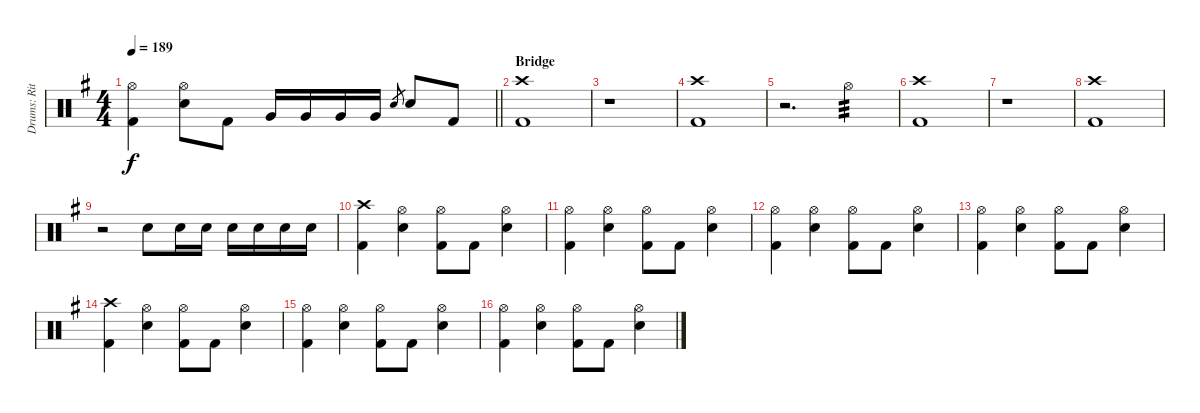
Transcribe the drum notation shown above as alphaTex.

\track ("Drums: Ritsu Tainaka" "Drums: Rit") {instrument percussion}
\staff {score}
\articulation defaults
\ts (4 4)
\tempo 189
\clef neutral
\barLineRight lightlight
\ks g
("Hi-Hat (open)" "Kick (hit) 2").4{dy f} ("Hi-Hat (open)" "Electric Snare (hit)").8 "Kick (hit) 2".8 "Very Low Tom (hit)".16 "Very Low Tom (hit)".16 "Very Low Tom (hit)".16 "Very Low Tom (hit)".16 "Electric Snare (hit)".8{gr} "Electric Snare (hit)".8 "Kick (hit) 2".8 |
\section ("" "Bridge")
("Crash high (hit)" "Kick (hit) 2").1 |
r.1 |
("Crash high (hit)" "Kick (hit) 2").1 |
r.2{d} "Hi-Hat (open)".4{tp 3} |
("Crash high (hit)" "Kick (hit) 2").1 |
r.1 |
("Crash high (hit)" "Kick (hit) 2").1 |
r.2 "Electric Snare (hit)".8 "Electric Snare (hit)".16 "Electric Snare (hit)".16 "Electric Snare (hit)".16 "Electric Snare (hit)".16 "Electric Snare (hit)".16 "Electric Snare (hit)".16 |
("Crash high (hit)" "Kick (hit) 2").4 ("Hi-Hat (open)" "Electric Snare (hit)").4 ("Hi-Hat (open)" "Kick (hit) 2").8 "Kick (hit) 2".8 ("Hi-Hat (open)" "Electric Snare (hit)").4 |
("Hi-Hat (open)" "Kick (hit) 2").4 ("Hi-Hat (open)" "Electric Snare (hit)").4 ("Hi-Hat (open)" "Kick (hit) 2").8 "Kick (hit) 2".8 ("Hi-Hat (open)" "Electric Snare (hit)").4 |
("Hi-Hat (open)" "Kick (hit) 2").4 ("Hi-Hat (open)" "Electric Snare (hit)").4 ("Hi-Hat (open)" "Kick (hit) 2").8 "Kick (hit) 2".8 ("Hi-Hat (open)" "Electric Snare (hit)").4 |
("Hi-Hat (open)" "Kick (hit) 2").4 ("Hi-Hat (open)" "Electric Snare (hit)").4 ("Hi-Hat (open)" "Kick (hit) 2").8 "Kick (hit) 2".8 ("Hi-Hat (open)" "Electric Snare (hit)").4 |
("Crash high (hit)" "Kick (hit) 2").4 ("Hi-Hat (open)" "Electric Snare (hit)").4 ("Hi-Hat (open)" "Kick (hit) 2").8 "Kick (hit) 2".8 ("Hi-Hat (open)" "Electric Snare (hit)").4 |
("Hi-Hat (open)" "Kick (hit) 2").4 ("Hi-Hat (open)" "Electric Snare (hit)").4 ("Hi-Hat (open)" "Kick (hit) 2").8 "Kick (hit) 2".8 ("Hi-Hat (open)" "Electric Snare (hit)").4 |
("Hi-Hat (open)" "Kick (hit) 2").4 ("Hi-Hat (open)" "Electric Snare (hit)").4 ("Hi-Hat (open)" "Kick (hit) 2").8 "Kick (hit) 2".8 ("Hi-Hat (open)" "Electric Snare (hit)").4
